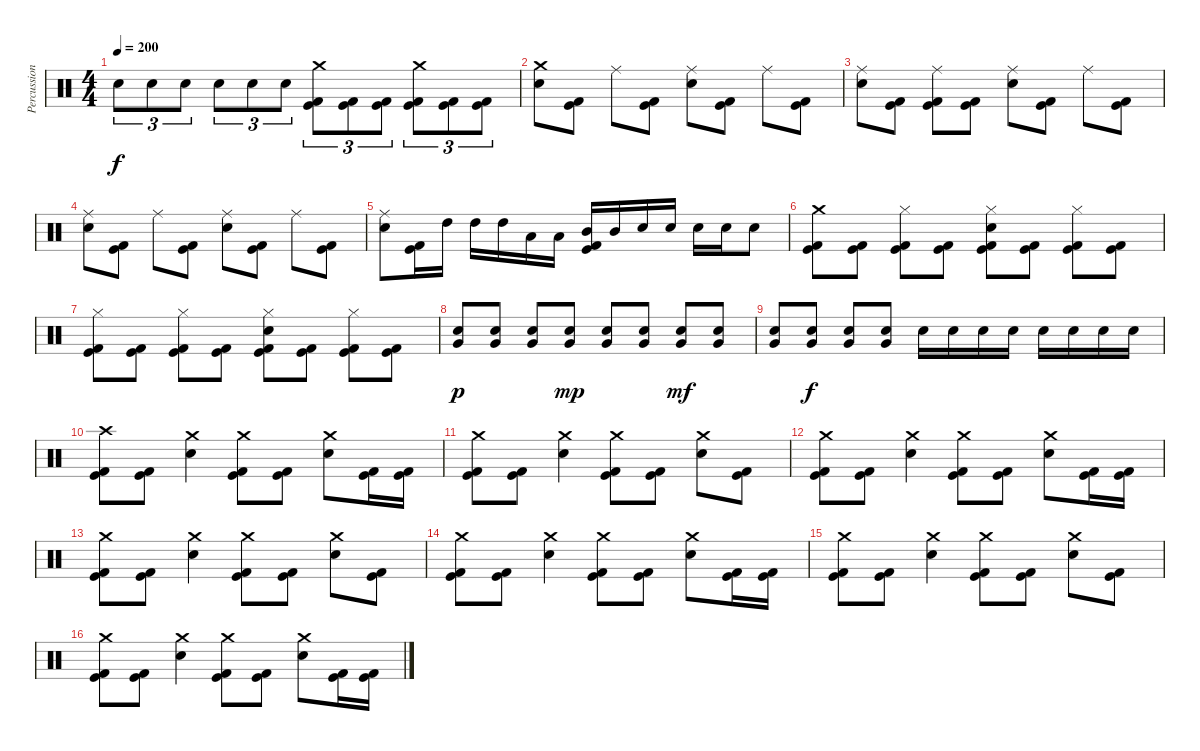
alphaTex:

\track ("Percussions" "Percussion") {instrument percussion}
\staff {score}
\articulation defaults
\ts (4 4)
\tempo 200
\clef neutral
\ks c "Electric Snare (hit)".8{tu (3 2) dy f} "Electric Snare (hit)".8{tu (3 2)} "Electric Snare (hit)".8{tu (3 2)} "Electric Snare (hit)".8{tu (3 2)} "Electric Snare (hit)".8{tu (3 2)} "Electric Snare (hit)".8{tu (3 2)}
("Crash medium (hit)" "Kick (hit)" "Kick (hit) 2").8{tu (3 2)} ("Kick (hit)" "Kick (hit) 2").8{tu (3 2)} ("Kick (hit)" "Kick (hit) 2").8{tu (3 2)} ("Crash medium (hit)" "Kick (hit)" "Kick (hit) 2").8{tu (3 2)} ("Kick (hit)" "Kick (hit) 2").8{tu (3 2)} ("Kick (hit)" "Kick (hit) 2").8{tu (3 2)} |
("Crash medium (hit)" "Electric Snare (hit)").8 ("Kick (hit)" "Kick (hit) 2").8 "Ride (middle)".8 ("Kick (hit)" "Kick (hit) 2").8 ("Ride (middle)" "Electric Snare (hit)").8 ("Kick (hit)" "Kick (hit) 2").8 "Ride (middle)".8 ("Kick (hit)" "Kick (hit) 2").8 |
("Ride (middle)" "Electric Snare (hit)").8 ("Kick (hit)" "Kick (hit) 2").8 ("Ride (middle)" "Kick (hit)" "Kick (hit) 2").8 ("Kick (hit)" "Kick (hit) 2").8 ("Ride (middle)" "Electric Snare (hit)").8 ("Kick (hit)" "Kick (hit) 2").8 "Ride (middle)".8 ("Kick (hit)" "Kick (hit) 2").8 |
("Ride (middle)" "Electric Snare (hit)").8 ("Kick (hit)" "Kick (hit) 2").8 "Ride (middle)".8 ("Kick (hit)" "Kick (hit) 2").8 ("Ride (middle)" "Electric Snare (hit)").8 ("Kick (hit)" "Kick (hit) 2").8 "Ride (middle)".8 ("Kick (hit)" "Kick (hit) 2").8 |
("Ride (middle)" "Electric Snare (hit)").8 ("Kick (hit)" "Kick (hit) 2").16 "High Tom (hit)".16 "High Tom (hit)".16 "High Tom (hit)".16 "Low Tom (hit)".16 "Low Tom (hit)".16 ("Mid Tom (hit)" "Kick (hit)" "Kick (hit) 2").16 "Mid Tom (hit)".16 "Electric Snare (hit)".16 "Electric Snare (hit)".16 "Electric Snare (hit)".16 "Electric Snare (hit)".16 "Electric Snare (hit)".8 |
("Crash medium (hit)" "Kick (hit)" "Kick (hit) 2").8 ("Kick (hit)" "Kick (hit) 2").8 ("Hi-Hat (closed)" "Kick (hit)" "Kick (hit) 2").8 ("Kick (hit)" "Kick (hit) 2").8 ("Hi-Hat (closed)" "Electric Snare (hit)" "Kick (hit)" "Kick (hit) 2").8 ("Kick (hit)" "Kick (hit) 2").8 ("Hi-Hat (closed)" "Kick (hit)" "Kick (hit) 2").8 ("Kick (hit)" "Kick (hit) 2").8 |
("Hi-Hat (closed)" "Kick (hit)" "Kick (hit) 2").8 ("Kick (hit)" "Kick (hit) 2").8 ("Hi-Hat (closed)" "Kick (hit)" "Kick (hit) 2").8 ("Kick (hit)" "Kick (hit) 2").8 ("Hi-Hat (closed)" "Electric Snare (hit)" "Kick (hit)" "Kick (hit) 2").8 ("Kick (hit)" "Kick (hit) 2").8 ("Hi-Hat (closed)" "Kick (hit)" "Kick (hit) 2").8 ("Kick (hit)" "Kick (hit) 2").8 |
("Electric Snare (hit)" "Very Low Tom (hit)").8{dy p} ("Electric Snare (hit)" "Very Low Tom (hit)").8 ("Electric Snare (hit)" "Very Low Tom (hit)").8 ("Electric Snare (hit)" "Very Low Tom (hit)").8{dy mp} ("Electric Snare (hit)" "Very Low Tom (hit)").8 ("Electric Snare (hit)" "Very Low Tom (hit)").8 ("Electric Snare (hit)" "Very Low Tom (hit)").8{dy mf} ("Electric Snare (hit)" "Very Low Tom (hit)").8 |
("Electric Snare (hit)" "Very Low Tom (hit)").8 ("Electric Snare (hit)" "Very Low Tom (hit)").8{dy f} ("Electric Snare (hit)" "Very Low Tom (hit)").8 ("Electric Snare (hit)" "Very Low Tom (hit)").8 "Electric Snare (hit)".16 "Electric Snare (hit)".16 "Electric Snare (hit)".16 "Electric Snare (hit)".16 "Electric Snare (hit)".16 "Electric Snare (hit)".16 "Electric Snare (hit)".16 "Electric Snare (hit)".16 |
("Crash high (hit)" "Kick (hit)" "Kick (hit) 2").8 ("Kick (hit)" "Kick (hit) 2").8 ("Crash medium (hit)" "Electric Snare (hit)").4 ("Crash medium (hit)" "Kick (hit)" "Kick (hit) 2").8 ("Kick (hit)" "Kick (hit) 2").8 ("Crash medium (hit)" "Electric Snare (hit)").8 ("Kick (hit)" "Kick (hit) 2").16 ("Kick (hit)" "Kick (hit) 2").16 |
("Crash medium (hit)" "Kick (hit)" "Kick (hit) 2").8 ("Kick (hit)" "Kick (hit) 2").8 ("Crash medium (hit)" "Electric Snare (hit)").4 ("Crash medium (hit)" "Kick (hit)" "Kick (hit) 2").8 ("Kick (hit)" "Kick (hit) 2").8 ("Crash medium (hit)" "Electric Snare (hit)").8 ("Kick (hit)" "Kick (hit) 2").8 |
("Crash medium (hit)" "Kick (hit)" "Kick (hit) 2").8 ("Kick (hit)" "Kick (hit) 2").8 ("Crash medium (hit)" "Electric Snare (hit)").4 ("Crash medium (hit)" "Kick (hit)" "Kick (hit) 2").8 ("Kick (hit)" "Kick (hit) 2").8 ("Crash medium (hit)" "Electric Snare (hit)").8 ("Kick (hit)" "Kick (hit) 2").16 ("Kick (hit)" "Kick (hit) 2").16 |
("Crash medium (hit)" "Kick (hit)" "Kick (hit) 2").8 ("Kick (hit)" "Kick (hit) 2").8 ("Crash medium (hit)" "Electric Snare (hit)").4 ("Crash medium (hit)" "Kick (hit)" "Kick (hit) 2").8 ("Kick (hit)" "Kick (hit) 2").8 ("Crash medium (hit)" "Electric Snare (hit)").8 ("Kick (hit)" "Kick (hit) 2").8 |
("Crash medium (hit)" "Kick (hit)" "Kick (hit) 2").8 ("Kick (hit)" "Kick (hit) 2").8 ("Crash medium (hit)" "Electric Snare (hit)").4 ("Crash medium (hit)" "Kick (hit)" "Kick (hit) 2").8 ("Kick (hit)" "Kick (hit) 2").8 ("Crash medium (hit)" "Electric Snare (hit)").8 ("Kick (hit)" "Kick (hit) 2").16 ("Kick (hit)" "Kick (hit) 2").16 |
("Crash medium (hit)" "Kick (hit)" "Kick (hit) 2").8 ("Kick (hit)" "Kick (hit) 2").8 ("Crash medium (hit)" "Electric Snare (hit)").4 ("Crash medium (hit)" "Kick (hit)" "Kick (hit) 2").8 ("Kick (hit)" "Kick (hit) 2").8 ("Crash medium (hit)" "Electric Snare (hit)").8 ("Kick (hit)" "Kick (hit) 2").8 |
("Crash medium (hit)" "Kick (hit)" "Kick (hit) 2").8 ("Kick (hit)" "Kick (hit) 2").8 ("Crash medium (hit)" "Electric Snare (hit)").4 ("Crash medium (hit)" "Kick (hit)" "Kick (hit) 2").8 ("Kick (hit)" "Kick (hit) 2").8 ("Crash medium (hit)" "Electric Snare (hit)").8 ("Kick (hit)" "Kick (hit) 2").16 ("Kick (hit)" "Kick (hit) 2").16
